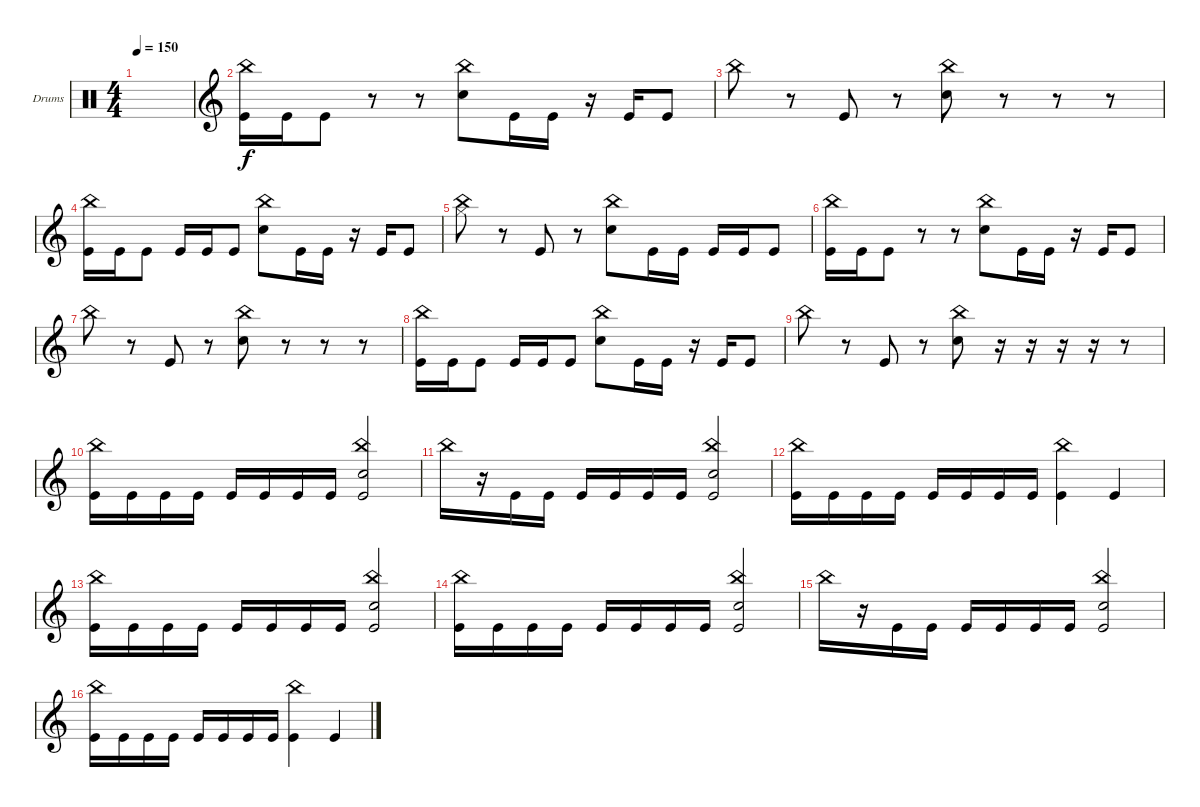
\bracketExtendMode groupsimilarinstruments
\firstSystemTrackNameOrientation horizontal
\otherSystemsTrackNameOrientation horizontal
\track ("Drumkit" "Drums") {instrument percussion}
\staff {score}
\articulation defaults
\ts (4 4)
\tempo 150
\clef neutral
\ks c
|
\clef g2
("Kick (hit)" "China (hit)").16 "Kick (hit)".16 "Kick (hit)".8 r.8 r.8 ("Snare (hit) 2" "China (hit)").8 "Kick (hit)".16 "Kick (hit)".16 r.16 "Kick (hit)".16 "Kick (hit)".8 |
"China (hit)".8 r.8 "Kick (hit)".8 r.8 ("Snare (hit) 2" "China (hit)").8 r.8 r.8 r.8 |
("Kick (hit)" "China (hit)").16 "Kick (hit)".16 "Kick (hit)".8 "Kick (hit)".16 "Kick (hit)".16 "Kick (hit)".8 ("Snare (hit) 2" "China (hit)").8 "Kick (hit)".16 "Kick (hit)".16 r.16 "Kick (hit)".16 "Kick (hit)".8 |
("Hi-Hat (closed)" "China (hit)").8 r.8 "Kick (hit)".8 r.8 ("Snare (hit) 2" "China (hit)").8 "Kick (hit)".16 "Kick (hit)".16 "Kick (hit)".16 "Kick (hit)".16 "Kick (hit)".8 |
("Kick (hit)" "China (hit)").16 "Kick (hit)".16 "Kick (hit)".8 r.8 r.8 ("Snare (hit) 2" "China (hit)").8 "Kick (hit)".16 "Kick (hit)".16 r.16 "Kick (hit)".16 "Kick (hit)".8 |
"China (hit)".8 r.8 "Kick (hit)".8 r.8 ("Snare (hit) 2" "China (hit)").8 r.8 r.8 r.8 |
("Kick (hit)" "China (hit)").16 "Kick (hit)".16 "Kick (hit)".8 "Kick (hit)".16 "Kick (hit)".16 "Kick (hit)".8 ("Snare (hit) 2" "China (hit)").8 "Kick (hit)".16 "Kick (hit)".16 r.16 "Kick (hit)".16 "Kick (hit)".8 |
"China (hit)".8 r.8 "Kick (hit)".8 r.8 ("Snare (hit) 2" "China (hit)").8 r.16 r.16 r.16 r.16 r.8 |
("Kick (hit)" "China (hit)").16 "Kick (hit)".16 "Kick (hit)".16 "Kick (hit)".16 "Kick (hit)".16 "Kick (hit)".16 "Kick (hit)".16 "Kick (hit)".16 ("Kick (hit)" "China (hit)" "Snare (hit) 2").2 |
"China (hit)".16 r.16 "Kick (hit)".16 "Kick (hit)".16 "Kick (hit)".16 "Kick (hit)".16 "Kick (hit)".16 "Kick (hit)".16 ("Kick (hit)" "China (hit)" "Snare (hit) 2").2 |
("Kick (hit)" "China (hit)").16 "Kick (hit)".16 "Kick (hit)".16 "Kick (hit)".16 "Kick (hit)".16 "Kick (hit)".16 "Kick (hit)".16 "Kick (hit)".16 ("Kick (hit)" "China (hit)").4 "Kick (hit)".4 |
("Kick (hit)" "China (hit)").16 "Kick (hit)".16 "Kick (hit)".16 "Kick (hit)".16 "Kick (hit)".16 "Kick (hit)".16 "Kick (hit)".16 "Kick (hit)".16 ("Kick (hit)" "China (hit)" "Snare (hit) 2").2 |
("Kick (hit)" "China (hit)").16 "Kick (hit)".16 "Kick (hit)".16 "Kick (hit)".16 "Kick (hit)".16 "Kick (hit)".16 "Kick (hit)".16 "Kick (hit)".16 ("Kick (hit)" "China (hit)" "Snare (hit) 2").2 |
"China (hit)".16 r.16 "Kick (hit)".16 "Kick (hit)".16 "Kick (hit)".16 "Kick (hit)".16 "Kick (hit)".16 "Kick (hit)".16 ("Kick (hit)" "China (hit)" "Snare (hit) 2").2 |
("Kick (hit)" "China (hit)").16 "Kick (hit)".16 "Kick (hit)".16 "Kick (hit)".16 "Kick (hit)".16 "Kick (hit)".16 "Kick (hit)".16 "Kick (hit)".16 ("Kick (hit)" "China (hit)").4 "Kick (hit)".4
